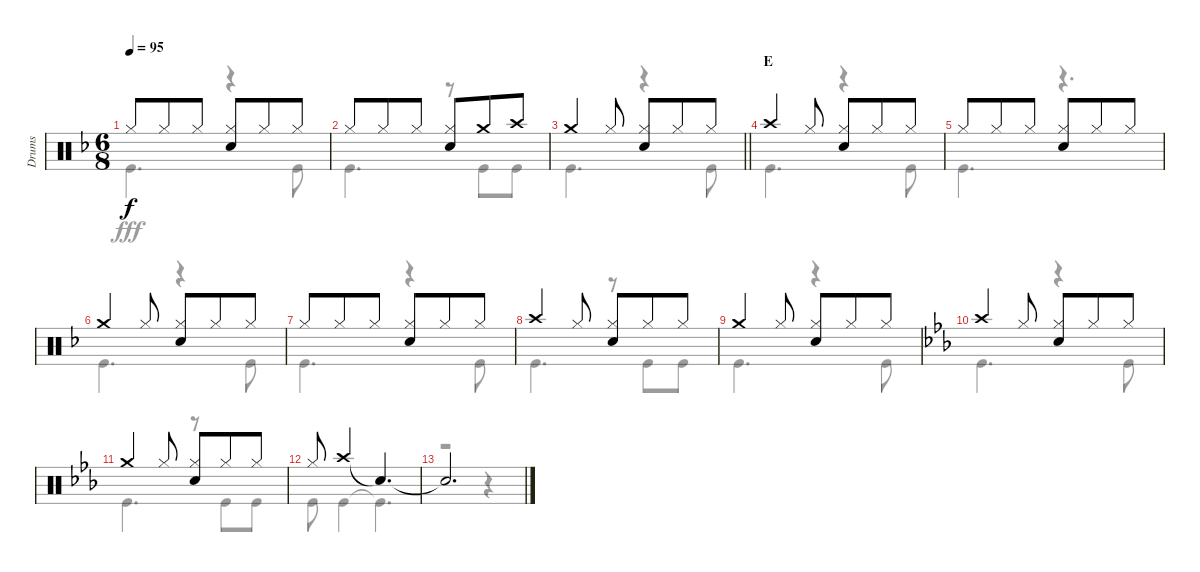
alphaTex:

\track ("Drums" "Drums") {instrument percussion}
\staff {score}
\articulation defaults
\voice
\ts (6 8)
\tempo 95
\clef neutral
\ks f "Hi-Hat (closed)".8{dy f} "Hi-Hat (closed)".8 "Hi-Hat (closed)".8
("Hi-Hat (closed)" "Snare (hit) 2").8 "Hi-Hat (closed)".8 "Hi-Hat (closed)".8 |
"Hi-Hat (closed)".8 "Hi-Hat (closed)".8 "Hi-Hat (closed)".8 ("Hi-Hat (closed)" "Snare (hit) 2").8 "Crash medium (hit)".8 "Crash high (hit)".8 |
\barLineRight lightlight "Crash medium (hit)".4 "Hi-Hat (closed)".8
("Hi-Hat (closed)" "Snare (hit) 2").8 "Hi-Hat (closed)".8 "Hi-Hat (closed)".8 |
\section ("" "E")
"Crash high (hit)".4 "Hi-Hat (closed)".8 ("Hi-Hat (closed)" "Snare (hit) 2").8 "Hi-Hat (closed)".8 "Hi-Hat (closed)".8 |
"Hi-Hat (closed)".8 "Hi-Hat (closed)".8 "Hi-Hat (closed)".8 ("Hi-Hat (closed)" "Snare (hit) 2").8 "Hi-Hat (closed)".8 "Hi-Hat (closed)".8 |
"Crash medium (hit)".4 "Hi-Hat (closed)".8 ("Hi-Hat (closed)" "Snare (hit) 2").8 "Hi-Hat (closed)".8 "Hi-Hat (closed)".8 |
"Hi-Hat (closed)".8 "Hi-Hat (closed)".8 "Hi-Hat (closed)".8 ("Hi-Hat (closed)" "Snare (hit) 2").8 "Hi-Hat (closed)".8 "Hi-Hat (closed)".8 |
"Crash high (hit)".4 "Hi-Hat (closed)".8 ("Hi-Hat (closed)" "Snare (hit) 2").8 "Hi-Hat (closed)".8 "Hi-Hat (closed)".8 |
"Crash medium (hit)".4 "Hi-Hat (closed)".8 ("Hi-Hat (closed)" "Snare (hit) 2").8 "Hi-Hat (closed)".8 "Hi-Hat (closed)".8 |
\ks eb "Crash high (hit)".4 "Hi-Hat (closed)".8
("Hi-Hat (closed)" "Snare (hit) 2").8 "Hi-Hat (closed)".8 "Hi-Hat (closed)".8 |
"Crash medium (hit)".4 "Hi-Hat (closed)".8 ("Hi-Hat (closed)" "Snare (hit) 2").8 "Hi-Hat (closed)".8 "Hi-Hat (closed)".8 |
"Hi-Hat (closed)".8 "Crash high (hit)".4 "Snare (hit)"{t}.4{d} |
"Snare (hit)"{t}.2{d}
\voice
\clef neutral
\ottava regular
\simile none
\ks f "Kick (hit)".4{d dy fff}
r.4 "Kick (hit)".8 |
"Kick (hit)".4{d} r.8 "Kick (hit)".8 "Kick (hit)".8 |
\barLineRight lightlight "Kick (hit)".4{d}
r.4 "Kick (hit)".8 |
"Kick (hit)".4{d} r.4 "Kick (hit)".8 |
"Kick (hit)".4{d} r.4{d} |
"Kick (hit)".4{d} r.4 "Kick (hit)".8 |
"Kick (hit)".4{d} r.4 "Kick (hit)".8 |
"Kick (hit)".4{d} r.8 "Kick (hit)".8 "Kick (hit)".8 |
"Kick (hit)".4{d} r.4 "Kick (hit)".8 |
\ks eb "Kick (hit)".4{d}
r.4 "Kick (hit)".8 |
"Kick (hit)".4{d} r.8 "Kick (hit)".8 "Kick (hit)".8 |
"Kick (hit)".8 "Kick (hit)".4 "Kick (hit)"{t}.4{d} |
r.2 r.4
